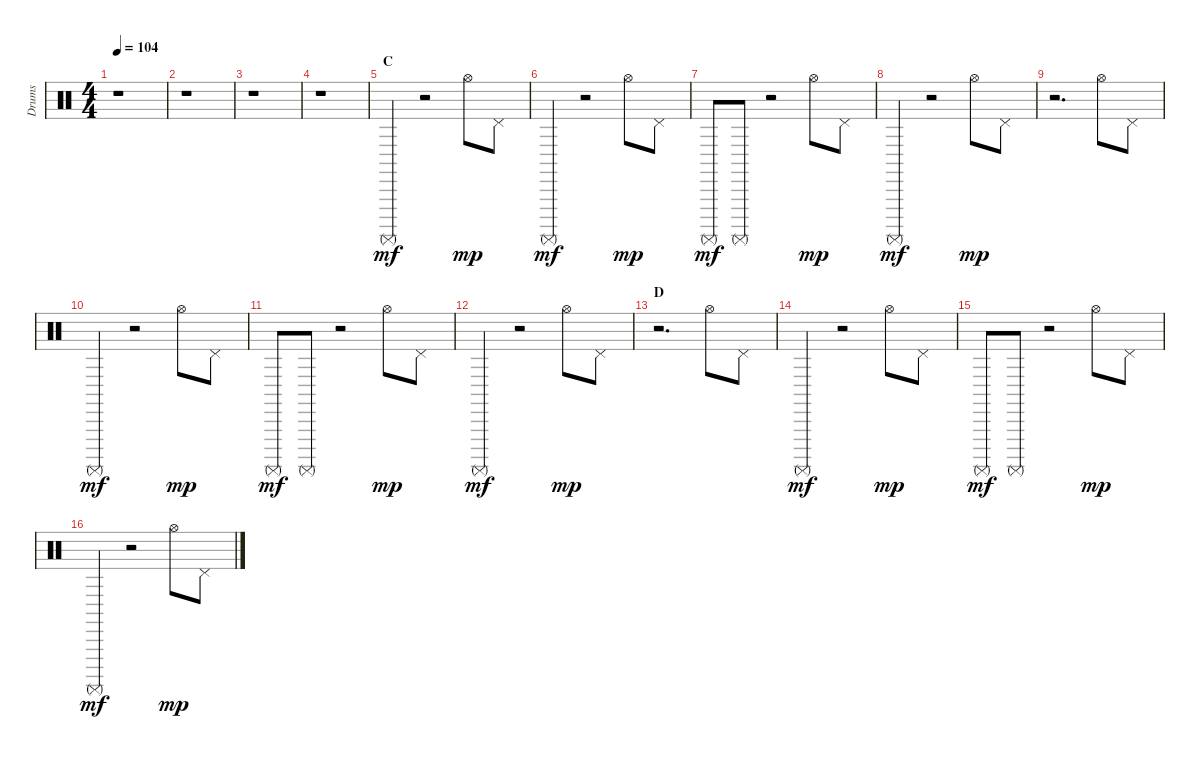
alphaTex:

\track ("Drums" "Drums") {instrument percussion}
\staff {score}
\articulation defaults
\ts (4 4)
\tempo 104
\clef neutral
\ks c
r.1{dy mf} |
r.1 |
r.1 |
r.1 |
\section ("" "C")
"Surdo (mute)".4 r.2 "Hi-Hat (open)".8{dy mp} "Pedal Hi-Hat (hit)".8 |
"Surdo (mute)".4{dy mf} r.2 "Hi-Hat (open)".8{dy mp} "Pedal Hi-Hat (hit)".8 |
"Surdo (mute)".8{dy mf} "Surdo (mute)".8 r.2 "Hi-Hat (open)".8{dy mp} "Pedal Hi-Hat (hit)".8 |
"Surdo (mute)".4{dy mf} r.2 "Hi-Hat (open)".8{dy mp} "Pedal Hi-Hat (hit)".8 |
r.2{d} "Hi-Hat (open)".8 "Pedal Hi-Hat (hit)".8 |
"Surdo (mute)".4{dy mf} r.2 "Hi-Hat (open)".8{dy mp} "Pedal Hi-Hat (hit)".8 |
"Surdo (mute)".8{dy mf} "Surdo (mute)".8 r.2 "Hi-Hat (open)".8{dy mp} "Pedal Hi-Hat (hit)".8 |
"Surdo (mute)".4{dy mf} r.2 "Hi-Hat (open)".8{dy mp} "Pedal Hi-Hat (hit)".8 |
\section ("" "D")
r.2{d} "Hi-Hat (open)".8 "Pedal Hi-Hat (hit)".8 |
"Surdo (mute)".4{dy mf} r.2 "Hi-Hat (open)".8{dy mp} "Pedal Hi-Hat (hit)".8 |
"Surdo (mute)".8{dy mf} "Surdo (mute)".8 r.2 "Hi-Hat (open)".8{dy mp} "Pedal Hi-Hat (hit)".8 |
"Surdo (mute)".4{dy mf} r.2 "Hi-Hat (open)".8{dy mp} "Pedal Hi-Hat (hit)".8
